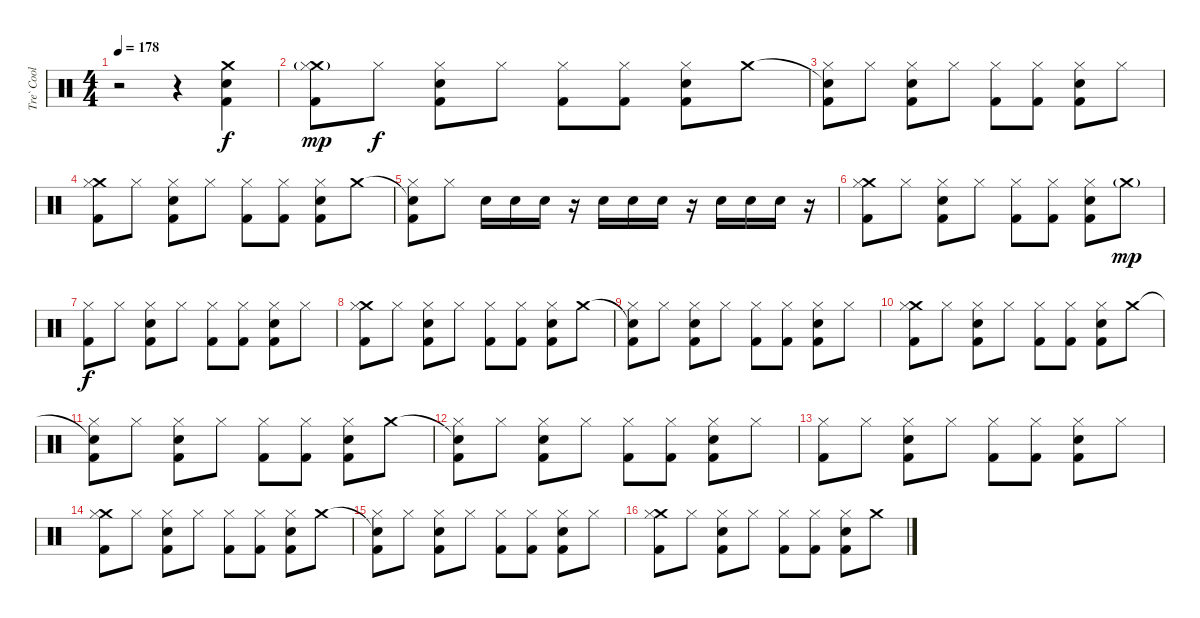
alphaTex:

\track ("Tre` Cool (Drums)" "Tre` Cool ") {instrument percussion}
\staff {score}
\articulation defaults
\ts (4 4)
\tempo 178
\clef neutral
\ks c
r.2{dy f} r.4 ("Crash medium (hit)" "Snare (hit) 2" "Kick (hit) 2").4 |
("Crash medium (hit)"{g} "Hi-Hat (closed)" "Kick (hit) 2").8{dy mp} "Hi-Hat (closed)".8{dy f} ("Hi-Hat (closed)" "Snare (hit) 2" "Kick (hit) 2").8 "Hi-Hat (closed)".8 ("Hi-Hat (closed)" "Kick (hit) 2").8 ("Hi-Hat (closed)" "Kick (hit) 2").8 ("Hi-Hat (closed)" "Snare (hit) 2" "Kick (hit) 2").8 "Crash medium (hit)".8 |
("Snare (hit)"{t} "Hi-Hat (closed)" "Kick (hit) 2").8 "Hi-Hat (closed)".8 ("Hi-Hat (closed)" "Snare (hit) 2" "Kick (hit) 2").8 "Hi-Hat (closed)".8 ("Hi-Hat (closed)" "Kick (hit) 2").8 ("Hi-Hat (closed)" "Kick (hit) 2").8 ("Hi-Hat (closed)" "Snare (hit) 2" "Kick (hit) 2").8 "Hi-Hat (closed)".8 |
("Crash medium (hit)" "Hi-Hat (closed)" "Kick (hit) 2").8 "Hi-Hat (closed)".8 ("Hi-Hat (closed)" "Snare (hit) 2" "Kick (hit) 2").8 "Hi-Hat (closed)".8 ("Hi-Hat (closed)" "Kick (hit) 2").8 ("Hi-Hat (closed)" "Kick (hit) 2").8 ("Hi-Hat (closed)" "Snare (hit) 2" "Kick (hit) 2").8 "Crash medium (hit)".8 |
("Snare (hit)"{t} "Hi-Hat (closed)" "Kick (hit) 2").8 "Hi-Hat (closed)".8 "Snare (hit) 2".16 "Snare (hit) 2".16 "Snare (hit) 2".16 r.16 "Snare (hit) 2".16 "Snare (hit) 2".16 "Snare (hit) 2".16 r.16 "Snare (hit) 2".16 "Snare (hit) 2".16 "Snare (hit) 2".16 r.16 |
("Crash medium (hit)" "Hi-Hat (closed)" "Kick (hit) 2").8 "Hi-Hat (closed)".8 ("Hi-Hat (closed)" "Snare (hit) 2" "Kick (hit) 2").8 "Hi-Hat (closed)".8 ("Hi-Hat (closed)" "Kick (hit) 2").8 ("Hi-Hat (closed)" "Kick (hit) 2").8 ("Hi-Hat (closed)" "Snare (hit) 2" "Kick (hit) 2").8 "Crash medium (hit)"{g}.8{dy mp} |
("Hi-Hat (closed)" "Kick (hit) 2").8{dy f} "Hi-Hat (closed)".8 ("Hi-Hat (closed)" "Snare (hit) 2" "Kick (hit) 2").8 "Hi-Hat (closed)".8 ("Hi-Hat (closed)" "Kick (hit) 2").8 ("Hi-Hat (closed)" "Kick (hit) 2").8 ("Hi-Hat (closed)" "Snare (hit) 2" "Kick (hit) 2").8 "Hi-Hat (closed)".8 |
("Crash medium (hit)" "Hi-Hat (closed)" "Kick (hit) 2").8 "Hi-Hat (closed)".8 ("Hi-Hat (closed)" "Snare (hit) 2" "Kick (hit) 2").8 "Hi-Hat (closed)".8 ("Hi-Hat (closed)" "Kick (hit) 2").8 ("Hi-Hat (closed)" "Kick (hit) 2").8 ("Hi-Hat (closed)" "Snare (hit) 2" "Kick (hit) 2").8 "Crash medium (hit)".8 |
("Snare (hit)"{t} "Hi-Hat (closed)" "Kick (hit) 2").8 "Hi-Hat (closed)".8 ("Hi-Hat (closed)" "Snare (hit) 2" "Kick (hit) 2").8 "Hi-Hat (closed)".8 ("Hi-Hat (closed)" "Kick (hit) 2").8 ("Hi-Hat (closed)" "Kick (hit) 2").8 ("Hi-Hat (closed)" "Snare (hit) 2" "Kick (hit) 2").8 "Hi-Hat (closed)".8 |
("Crash medium (hit)" "Hi-Hat (closed)" "Kick (hit) 2").8 "Hi-Hat (closed)".8 ("Hi-Hat (closed)" "Snare (hit) 2" "Kick (hit) 2").8 "Hi-Hat (closed)".8 ("Hi-Hat (closed)" "Kick (hit) 2").8 ("Hi-Hat (closed)" "Kick (hit) 2").8 ("Hi-Hat (closed)" "Snare (hit) 2" "Kick (hit) 2").8 "Crash medium (hit)".8 |
("Snare (hit)"{t} "Hi-Hat (closed)" "Kick (hit) 2").8 "Hi-Hat (closed)".8 ("Hi-Hat (closed)" "Snare (hit) 2" "Kick (hit) 2").8 "Hi-Hat (closed)".8 ("Hi-Hat (closed)" "Kick (hit) 2").8 ("Hi-Hat (closed)" "Kick (hit) 2").8 ("Hi-Hat (closed)" "Snare (hit) 2" "Kick (hit) 2").8 "Crash medium (hit)".8 |
("Snare (hit)"{t} "Hi-Hat (closed)" "Kick (hit) 2").8 "Hi-Hat (closed)".8 ("Hi-Hat (closed)" "Snare (hit) 2" "Kick (hit) 2").8 "Hi-Hat (closed)".8 ("Hi-Hat (closed)" "Kick (hit) 2").8 ("Hi-Hat (closed)" "Kick (hit) 2").8 ("Hi-Hat (closed)" "Snare (hit) 2" "Kick (hit) 2").8 "Hi-Hat (closed)".8 |
("Hi-Hat (closed)" "Kick (hit) 2").8 "Hi-Hat (closed)".8 ("Hi-Hat (closed)" "Snare (hit) 2" "Kick (hit) 2").8 "Hi-Hat (closed)".8 ("Hi-Hat (closed)" "Kick (hit) 2").8 ("Hi-Hat (closed)" "Kick (hit) 2").8 ("Hi-Hat (closed)" "Snare (hit) 2" "Kick (hit) 2").8 "Hi-Hat (closed)".8 |
("Crash medium (hit)" "Hi-Hat (closed)" "Kick (hit) 2").8 "Hi-Hat (closed)".8 ("Hi-Hat (closed)" "Snare (hit) 2" "Kick (hit) 2").8 "Hi-Hat (closed)".8 ("Hi-Hat (closed)" "Kick (hit) 2").8 ("Hi-Hat (closed)" "Kick (hit) 2").8 ("Hi-Hat (closed)" "Snare (hit) 2" "Kick (hit) 2").8 "Crash medium (hit)".8 |
("Snare (hit)"{t} "Hi-Hat (closed)" "Kick (hit) 2").8 "Hi-Hat (closed)".8 ("Hi-Hat (closed)" "Snare (hit) 2" "Kick (hit) 2").8 "Hi-Hat (closed)".8 ("Hi-Hat (closed)" "Kick (hit) 2").8 ("Hi-Hat (closed)" "Kick (hit) 2").8 ("Hi-Hat (closed)" "Snare (hit) 2" "Kick (hit) 2").8 "Hi-Hat (closed)".8 |
("Crash medium (hit)" "Hi-Hat (closed)" "Kick (hit) 2").8 "Hi-Hat (closed)".8 ("Hi-Hat (closed)" "Snare (hit) 2" "Kick (hit) 2").8 "Hi-Hat (closed)".8 ("Hi-Hat (closed)" "Kick (hit) 2").8 ("Hi-Hat (closed)" "Kick (hit) 2").8 ("Hi-Hat (closed)" "Snare (hit) 2" "Kick (hit) 2").8 "Crash medium (hit)".8
